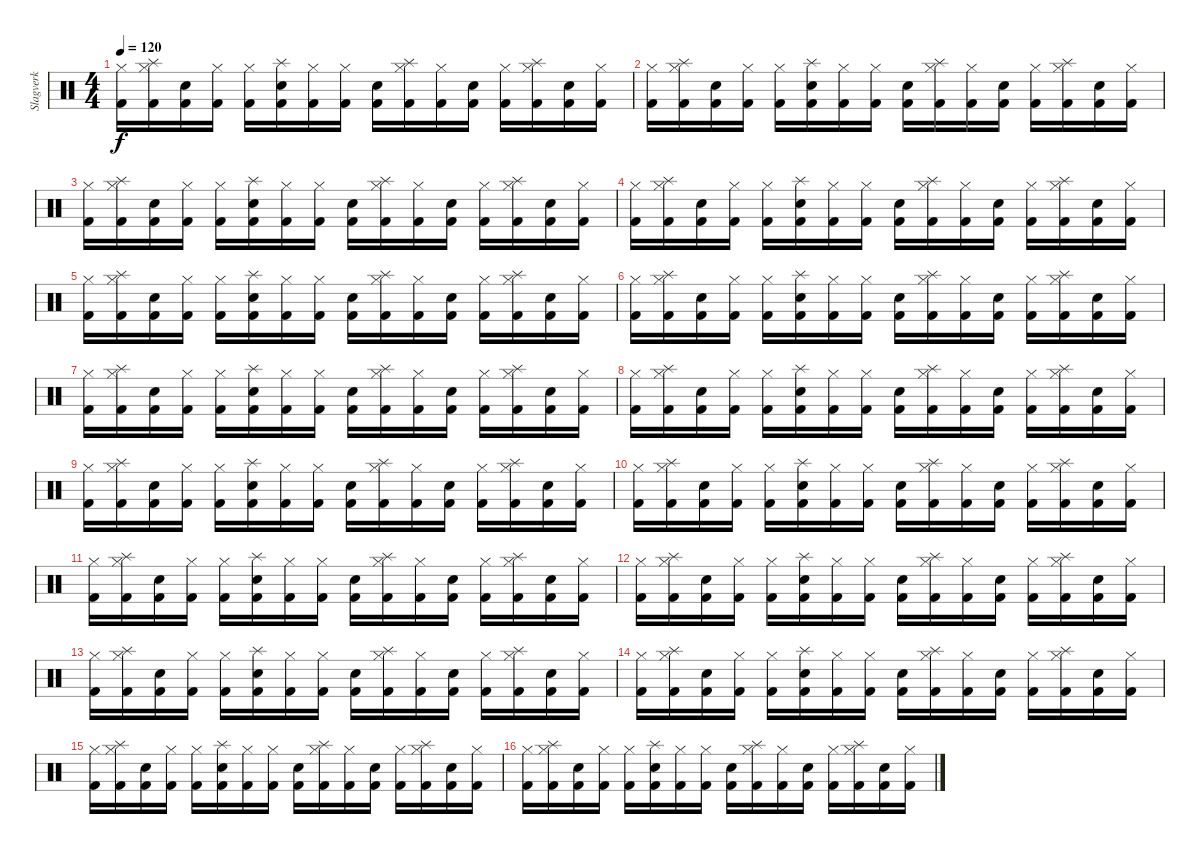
\track ("Slagverk" "Slagverk") {instrument percussion}
\staff {score}
\articulation defaults
\ts (4 4)
\tempo 120
\clef neutral
\ks c
("Kick (hit) 2" "Hi-Hat (closed)").16{dy f} ("Kick (hit) 2" "Hi-Hat (closed)" "Splash (hit)").16 ("Kick (hit) 2" "Snare (hit) 2").16 ("Kick (hit) 2" "Hi-Hat (closed)").16 ("Kick (hit) 2" "Hi-Hat (closed)").16 ("Kick (hit) 2" "Snare (hit) 2" "Splash (hit)").16 ("Kick (hit) 2" "Hi-Hat (closed)").16 ("Kick (hit) 2" "Hi-Hat (closed)").16 ("Kick (hit) 2" "Snare (hit) 2").16 ("Kick (hit) 2" "Hi-Hat (closed)" "Splash (hit)").16 ("Kick (hit) 2" "Hi-Hat (closed)").16 ("Kick (hit) 2" "Snare (hit) 2").16 ("Kick (hit) 2" "Hi-Hat (closed)").16 ("Kick (hit) 2" "Hi-Hat (closed)" "Splash (hit)").16 ("Kick (hit) 2" "Snare (hit) 2").16 ("Kick (hit) 2" "Hi-Hat (closed)").16 |
("Kick (hit) 2" "Hi-Hat (closed)").16 ("Kick (hit) 2" "Hi-Hat (closed)" "Splash (hit)").16 ("Kick (hit) 2" "Snare (hit) 2").16 ("Kick (hit) 2" "Hi-Hat (closed)").16 ("Kick (hit) 2" "Hi-Hat (closed)").16 ("Kick (hit) 2" "Snare (hit) 2" "Splash (hit)").16 ("Kick (hit) 2" "Hi-Hat (closed)").16 ("Kick (hit) 2" "Hi-Hat (closed)").16 ("Kick (hit) 2" "Snare (hit) 2").16 ("Kick (hit) 2" "Hi-Hat (closed)" "Splash (hit)").16 ("Kick (hit) 2" "Hi-Hat (closed)").16 ("Kick (hit) 2" "Snare (hit) 2").16 ("Kick (hit) 2" "Hi-Hat (closed)").16 ("Kick (hit) 2" "Hi-Hat (closed)" "Splash (hit)").16 ("Kick (hit) 2" "Snare (hit) 2").16 ("Kick (hit) 2" "Hi-Hat (closed)").16 |
("Kick (hit) 2" "Hi-Hat (closed)").16 ("Kick (hit) 2" "Hi-Hat (closed)" "Splash (hit)").16 ("Kick (hit) 2" "Snare (hit) 2").16 ("Kick (hit) 2" "Hi-Hat (closed)").16 ("Kick (hit) 2" "Hi-Hat (closed)").16 ("Kick (hit) 2" "Snare (hit) 2" "Splash (hit)").16 ("Kick (hit) 2" "Hi-Hat (closed)").16 ("Kick (hit) 2" "Hi-Hat (closed)").16 ("Kick (hit) 2" "Snare (hit) 2").16 ("Kick (hit) 2" "Hi-Hat (closed)" "Splash (hit)").16 ("Kick (hit) 2" "Hi-Hat (closed)").16 ("Kick (hit) 2" "Snare (hit) 2").16 ("Kick (hit) 2" "Hi-Hat (closed)").16 ("Kick (hit) 2" "Hi-Hat (closed)" "Splash (hit)").16 ("Kick (hit) 2" "Snare (hit) 2").16 ("Kick (hit) 2" "Hi-Hat (closed)").16 |
("Kick (hit) 2" "Hi-Hat (closed)").16 ("Kick (hit) 2" "Hi-Hat (closed)" "Splash (hit)").16 ("Kick (hit) 2" "Snare (hit) 2").16 ("Kick (hit) 2" "Hi-Hat (closed)").16 ("Kick (hit) 2" "Hi-Hat (closed)").16 ("Kick (hit) 2" "Snare (hit) 2" "Splash (hit)").16 ("Kick (hit) 2" "Hi-Hat (closed)").16 ("Kick (hit) 2" "Hi-Hat (closed)").16 ("Kick (hit) 2" "Snare (hit) 2").16 ("Kick (hit) 2" "Hi-Hat (closed)" "Splash (hit)").16 ("Kick (hit) 2" "Hi-Hat (closed)").16 ("Kick (hit) 2" "Snare (hit) 2").16 ("Kick (hit) 2" "Hi-Hat (closed)").16 ("Kick (hit) 2" "Hi-Hat (closed)" "Splash (hit)").16 ("Kick (hit) 2" "Snare (hit) 2").16 ("Kick (hit) 2" "Hi-Hat (closed)").16 |
("Kick (hit) 2" "Hi-Hat (closed)").16 ("Kick (hit) 2" "Hi-Hat (closed)" "Splash (hit)").16 ("Kick (hit) 2" "Snare (hit) 2").16 ("Kick (hit) 2" "Hi-Hat (closed)").16 ("Kick (hit) 2" "Hi-Hat (closed)").16 ("Kick (hit) 2" "Snare (hit) 2" "Splash (hit)").16 ("Kick (hit) 2" "Hi-Hat (closed)").16 ("Kick (hit) 2" "Hi-Hat (closed)").16 ("Kick (hit) 2" "Snare (hit) 2").16 ("Kick (hit) 2" "Hi-Hat (closed)" "Splash (hit)").16 ("Kick (hit) 2" "Hi-Hat (closed)").16 ("Kick (hit) 2" "Snare (hit) 2").16 ("Kick (hit) 2" "Hi-Hat (closed)").16 ("Kick (hit) 2" "Hi-Hat (closed)" "Splash (hit)").16 ("Kick (hit) 2" "Snare (hit) 2").16 ("Kick (hit) 2" "Hi-Hat (closed)").16 |
("Kick (hit) 2" "Hi-Hat (closed)").16 ("Kick (hit) 2" "Hi-Hat (closed)" "Splash (hit)").16 ("Kick (hit) 2" "Snare (hit) 2").16 ("Kick (hit) 2" "Hi-Hat (closed)").16 ("Kick (hit) 2" "Hi-Hat (closed)").16 ("Kick (hit) 2" "Snare (hit) 2" "Splash (hit)").16 ("Kick (hit) 2" "Hi-Hat (closed)").16 ("Kick (hit) 2" "Hi-Hat (closed)").16 ("Kick (hit) 2" "Snare (hit) 2").16 ("Kick (hit) 2" "Hi-Hat (closed)" "Splash (hit)").16 ("Kick (hit) 2" "Hi-Hat (closed)").16 ("Kick (hit) 2" "Snare (hit) 2").16 ("Kick (hit) 2" "Hi-Hat (closed)").16 ("Kick (hit) 2" "Hi-Hat (closed)" "Splash (hit)").16 ("Kick (hit) 2" "Snare (hit) 2").16 ("Kick (hit) 2" "Hi-Hat (closed)").16 |
("Kick (hit) 2" "Hi-Hat (closed)").16 ("Kick (hit) 2" "Hi-Hat (closed)" "Splash (hit)").16 ("Kick (hit) 2" "Snare (hit) 2").16 ("Kick (hit) 2" "Hi-Hat (closed)").16 ("Kick (hit) 2" "Hi-Hat (closed)").16 ("Kick (hit) 2" "Snare (hit) 2" "Splash (hit)").16 ("Kick (hit) 2" "Hi-Hat (closed)").16 ("Kick (hit) 2" "Hi-Hat (closed)").16 ("Kick (hit) 2" "Snare (hit) 2").16 ("Kick (hit) 2" "Hi-Hat (closed)" "Splash (hit)").16 ("Kick (hit) 2" "Hi-Hat (closed)").16 ("Kick (hit) 2" "Snare (hit) 2").16 ("Kick (hit) 2" "Hi-Hat (closed)").16 ("Kick (hit) 2" "Hi-Hat (closed)" "Splash (hit)").16 ("Kick (hit) 2" "Snare (hit) 2").16 ("Kick (hit) 2" "Hi-Hat (closed)").16 |
("Kick (hit) 2" "Hi-Hat (closed)").16 ("Kick (hit) 2" "Hi-Hat (closed)" "Splash (hit)").16 ("Kick (hit) 2" "Snare (hit) 2").16 ("Kick (hit) 2" "Hi-Hat (closed)").16 ("Kick (hit) 2" "Hi-Hat (closed)").16 ("Kick (hit) 2" "Snare (hit) 2" "Splash (hit)").16 ("Kick (hit) 2" "Hi-Hat (closed)").16 ("Kick (hit) 2" "Hi-Hat (closed)").16 ("Kick (hit) 2" "Snare (hit) 2").16 ("Kick (hit) 2" "Hi-Hat (closed)" "Splash (hit)").16 ("Kick (hit) 2" "Hi-Hat (closed)").16 ("Kick (hit) 2" "Snare (hit) 2").16 ("Kick (hit) 2" "Hi-Hat (closed)").16 ("Kick (hit) 2" "Hi-Hat (closed)" "Splash (hit)").16 ("Kick (hit) 2" "Snare (hit) 2").16 ("Kick (hit) 2" "Hi-Hat (closed)").16 |
("Kick (hit) 2" "Hi-Hat (closed)").16 ("Kick (hit) 2" "Hi-Hat (closed)" "Splash (hit)").16 ("Kick (hit) 2" "Snare (hit) 2").16 ("Kick (hit) 2" "Hi-Hat (closed)").16 ("Kick (hit) 2" "Hi-Hat (closed)").16 ("Kick (hit) 2" "Snare (hit) 2" "Splash (hit)").16 ("Kick (hit) 2" "Hi-Hat (closed)").16 ("Kick (hit) 2" "Hi-Hat (closed)").16 ("Kick (hit) 2" "Snare (hit) 2").16 ("Kick (hit) 2" "Hi-Hat (closed)" "Splash (hit)").16 ("Kick (hit) 2" "Hi-Hat (closed)").16 ("Kick (hit) 2" "Snare (hit) 2").16 ("Kick (hit) 2" "Hi-Hat (closed)").16 ("Kick (hit) 2" "Hi-Hat (closed)" "Splash (hit)").16 ("Kick (hit) 2" "Snare (hit) 2").16 ("Kick (hit) 2" "Hi-Hat (closed)").16 |
("Kick (hit) 2" "Hi-Hat (closed)").16 ("Kick (hit) 2" "Hi-Hat (closed)" "Splash (hit)").16 ("Kick (hit) 2" "Snare (hit) 2").16 ("Kick (hit) 2" "Hi-Hat (closed)").16 ("Kick (hit) 2" "Hi-Hat (closed)").16 ("Kick (hit) 2" "Snare (hit) 2" "Splash (hit)").16 ("Kick (hit) 2" "Hi-Hat (closed)").16 ("Kick (hit) 2" "Hi-Hat (closed)").16 ("Kick (hit) 2" "Snare (hit) 2").16 ("Kick (hit) 2" "Hi-Hat (closed)" "Splash (hit)").16 ("Kick (hit) 2" "Hi-Hat (closed)").16 ("Kick (hit) 2" "Snare (hit) 2").16 ("Kick (hit) 2" "Hi-Hat (closed)").16 ("Kick (hit) 2" "Hi-Hat (closed)" "Splash (hit)").16 ("Kick (hit) 2" "Snare (hit) 2").16 ("Kick (hit) 2" "Hi-Hat (closed)").16 |
("Kick (hit) 2" "Hi-Hat (closed)").16 ("Kick (hit) 2" "Hi-Hat (closed)" "Splash (hit)").16 ("Kick (hit) 2" "Snare (hit) 2").16 ("Kick (hit) 2" "Hi-Hat (closed)").16 ("Kick (hit) 2" "Hi-Hat (closed)").16 ("Kick (hit) 2" "Snare (hit) 2" "Splash (hit)").16 ("Kick (hit) 2" "Hi-Hat (closed)").16 ("Kick (hit) 2" "Hi-Hat (closed)").16 ("Kick (hit) 2" "Snare (hit) 2").16 ("Kick (hit) 2" "Hi-Hat (closed)" "Splash (hit)").16 ("Kick (hit) 2" "Hi-Hat (closed)").16 ("Kick (hit) 2" "Snare (hit) 2").16 ("Kick (hit) 2" "Hi-Hat (closed)").16 ("Kick (hit) 2" "Hi-Hat (closed)" "Splash (hit)").16 ("Kick (hit) 2" "Snare (hit) 2").16 ("Kick (hit) 2" "Hi-Hat (closed)").16 |
("Kick (hit) 2" "Hi-Hat (closed)").16 ("Kick (hit) 2" "Hi-Hat (closed)" "Splash (hit)").16 ("Kick (hit) 2" "Snare (hit) 2").16 ("Kick (hit) 2" "Hi-Hat (closed)").16 ("Kick (hit) 2" "Hi-Hat (closed)").16 ("Kick (hit) 2" "Snare (hit) 2" "Splash (hit)").16 ("Kick (hit) 2" "Hi-Hat (closed)").16 ("Kick (hit) 2" "Hi-Hat (closed)").16 ("Kick (hit) 2" "Snare (hit) 2").16 ("Kick (hit) 2" "Hi-Hat (closed)" "Splash (hit)").16 ("Kick (hit) 2" "Hi-Hat (closed)").16 ("Kick (hit) 2" "Snare (hit) 2").16 ("Kick (hit) 2" "Hi-Hat (closed)").16 ("Kick (hit) 2" "Hi-Hat (closed)" "Splash (hit)").16 ("Kick (hit) 2" "Snare (hit) 2").16 ("Kick (hit) 2" "Hi-Hat (closed)").16 |
("Kick (hit) 2" "Hi-Hat (closed)").16 ("Kick (hit) 2" "Hi-Hat (closed)" "Splash (hit)").16 ("Kick (hit) 2" "Snare (hit) 2").16 ("Kick (hit) 2" "Hi-Hat (closed)").16 ("Kick (hit) 2" "Hi-Hat (closed)").16 ("Kick (hit) 2" "Snare (hit) 2" "Splash (hit)").16 ("Kick (hit) 2" "Hi-Hat (closed)").16 ("Kick (hit) 2" "Hi-Hat (closed)").16 ("Kick (hit) 2" "Snare (hit) 2").16 ("Kick (hit) 2" "Hi-Hat (closed)" "Splash (hit)").16 ("Kick (hit) 2" "Hi-Hat (closed)").16 ("Kick (hit) 2" "Snare (hit) 2").16 ("Kick (hit) 2" "Hi-Hat (closed)").16 ("Kick (hit) 2" "Hi-Hat (closed)" "Splash (hit)").16 ("Kick (hit) 2" "Snare (hit) 2").16 ("Kick (hit) 2" "Hi-Hat (closed)").16 |
("Kick (hit) 2" "Hi-Hat (closed)").16 ("Kick (hit) 2" "Hi-Hat (closed)" "Splash (hit)").16 ("Kick (hit) 2" "Snare (hit) 2").16 ("Kick (hit) 2" "Hi-Hat (closed)").16 ("Kick (hit) 2" "Hi-Hat (closed)").16 ("Kick (hit) 2" "Snare (hit) 2" "Splash (hit)").16 ("Kick (hit) 2" "Hi-Hat (closed)").16 ("Kick (hit) 2" "Hi-Hat (closed)").16 ("Kick (hit) 2" "Snare (hit) 2").16 ("Kick (hit) 2" "Hi-Hat (closed)" "Splash (hit)").16 ("Kick (hit) 2" "Hi-Hat (closed)").16 ("Kick (hit) 2" "Snare (hit) 2").16 ("Kick (hit) 2" "Hi-Hat (closed)").16 ("Kick (hit) 2" "Hi-Hat (closed)" "Splash (hit)").16 ("Kick (hit) 2" "Snare (hit) 2").16 ("Kick (hit) 2" "Hi-Hat (closed)").16 |
("Kick (hit) 2" "Hi-Hat (closed)").16 ("Kick (hit) 2" "Hi-Hat (closed)" "Splash (hit)").16 ("Kick (hit) 2" "Snare (hit) 2").16 ("Kick (hit) 2" "Hi-Hat (closed)").16 ("Kick (hit) 2" "Hi-Hat (closed)").16 ("Kick (hit) 2" "Snare (hit) 2" "Splash (hit)").16 ("Kick (hit) 2" "Hi-Hat (closed)").16 ("Kick (hit) 2" "Hi-Hat (closed)").16 ("Kick (hit) 2" "Snare (hit) 2").16 ("Kick (hit) 2" "Hi-Hat (closed)" "Splash (hit)").16 ("Kick (hit) 2" "Hi-Hat (closed)").16 ("Kick (hit) 2" "Snare (hit) 2").16 ("Kick (hit) 2" "Hi-Hat (closed)").16 ("Kick (hit) 2" "Hi-Hat (closed)" "Splash (hit)").16 ("Kick (hit) 2" "Snare (hit) 2").16 ("Kick (hit) 2" "Hi-Hat (closed)").16 |
("Kick (hit) 2" "Hi-Hat (closed)").16 ("Kick (hit) 2" "Hi-Hat (closed)" "Splash (hit)").16 ("Kick (hit) 2" "Snare (hit) 2").16 ("Kick (hit) 2" "Hi-Hat (closed)").16 ("Kick (hit) 2" "Hi-Hat (closed)").16 ("Kick (hit) 2" "Snare (hit) 2" "Splash (hit)").16 ("Kick (hit) 2" "Hi-Hat (closed)").16 ("Kick (hit) 2" "Hi-Hat (closed)").16 ("Kick (hit) 2" "Snare (hit) 2").16 ("Kick (hit) 2" "Hi-Hat (closed)" "Splash (hit)").16 ("Kick (hit) 2" "Hi-Hat (closed)").16 ("Kick (hit) 2" "Snare (hit) 2").16 ("Kick (hit) 2" "Hi-Hat (closed)").16 ("Kick (hit) 2" "Hi-Hat (closed)" "Splash (hit)").16 ("Kick (hit) 2" "Snare (hit) 2").16 ("Kick (hit) 2" "Hi-Hat (closed)").16
